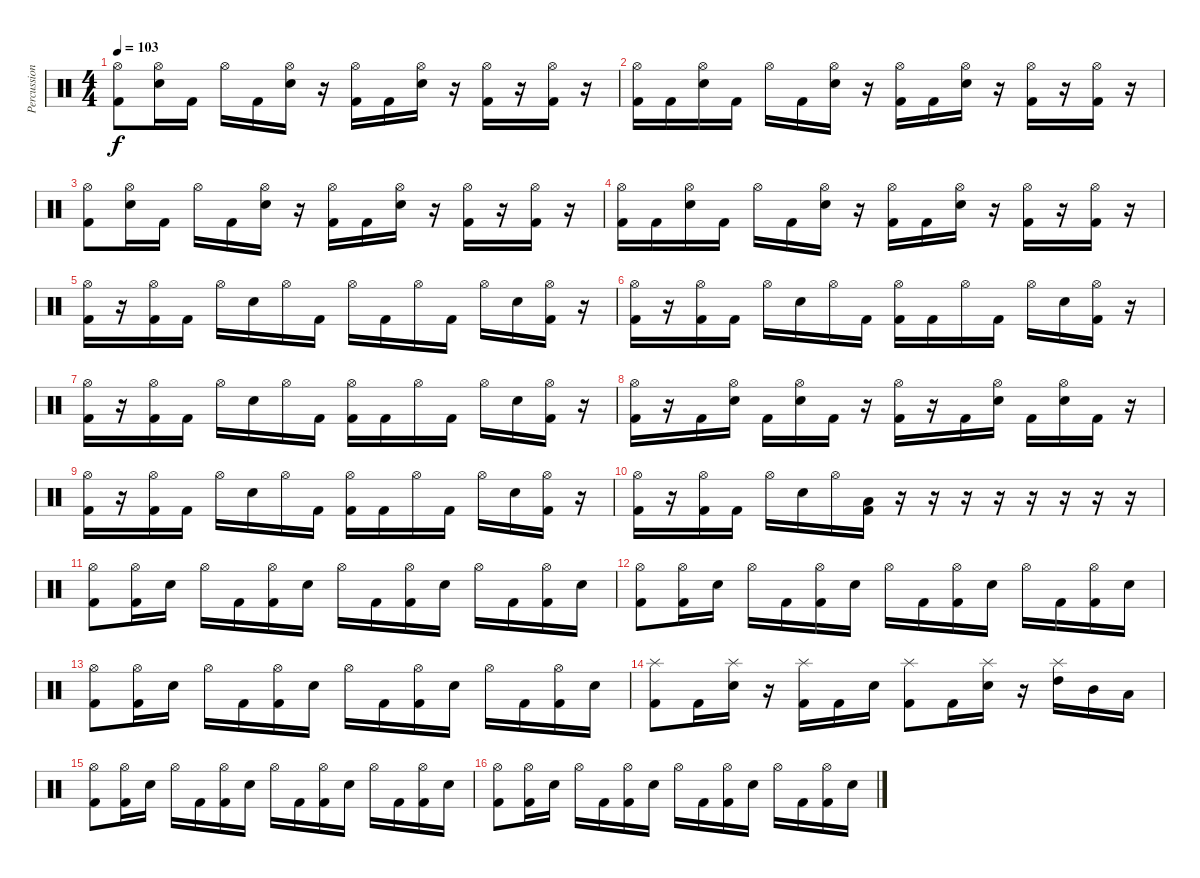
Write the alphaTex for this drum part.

\track ("Percussion" "Percussion") {instrument percussion}
\staff {score}
\articulation defaults
\ts (4 4)
\tempo 103
\clef neutral
\ks c
("Hi-Hat (open)" "Kick (hit) 2").8{dy f} ("Hi-Hat (open)" "Electric Snare (hit)").16 "Kick (hit) 2".16 "Hi-Hat (open)".16 "Kick (hit) 2".16 ("Hi-Hat (open)" "Electric Snare (hit)").16 r.16 ("Hi-Hat (open)" "Kick (hit) 2").16 "Kick (hit) 2".16 ("Hi-Hat (open)" "Electric Snare (hit)").16 r.16 ("Hi-Hat (open)" "Kick (hit) 2").16 r.16 ("Hi-Hat (open)" "Kick (hit) 2").16 r.16 |
("Hi-Hat (open)" "Kick (hit) 2").16 "Kick (hit) 2".16 ("Hi-Hat (open)" "Electric Snare (hit)").16 "Kick (hit) 2".16 "Hi-Hat (open)".16 "Kick (hit) 2".16 ("Hi-Hat (open)" "Electric Snare (hit)").16 r.16 ("Hi-Hat (open)" "Kick (hit) 2").16 "Kick (hit) 2".16 ("Hi-Hat (open)" "Electric Snare (hit)").16 r.16 ("Hi-Hat (open)" "Kick (hit) 2").16 r.16 ("Hi-Hat (open)" "Kick (hit) 2").16 r.16 |
("Hi-Hat (open)" "Kick (hit) 2").8 ("Hi-Hat (open)" "Electric Snare (hit)").16 "Kick (hit) 2".16 "Hi-Hat (open)".16 "Kick (hit) 2".16 ("Hi-Hat (open)" "Electric Snare (hit)").16 r.16 ("Hi-Hat (open)" "Kick (hit) 2").16 "Kick (hit) 2".16 ("Hi-Hat (open)" "Electric Snare (hit)").16 r.16 ("Hi-Hat (open)" "Kick (hit) 2").16 r.16 ("Hi-Hat (open)" "Kick (hit) 2").16 r.16 |
("Hi-Hat (open)" "Kick (hit) 2").16 "Kick (hit) 2".16 ("Hi-Hat (open)" "Electric Snare (hit)").16 "Kick (hit) 2".16 "Hi-Hat (open)".16 "Kick (hit) 2".16 ("Hi-Hat (open)" "Electric Snare (hit)").16 r.16 ("Hi-Hat (open)" "Kick (hit) 2").16 "Kick (hit) 2".16 ("Hi-Hat (open)" "Electric Snare (hit)").16 r.16 ("Hi-Hat (open)" "Kick (hit) 2").16 r.16 ("Hi-Hat (open)" "Kick (hit) 2").16 r.16 |
("Hi-Hat (open)" "Kick (hit) 2").16 r.16 ("Hi-Hat (open)" "Kick (hit) 2").16 "Kick (hit) 2".16 "Hi-Hat (open)".16 "Electric Snare (hit)".16 "Hi-Hat (open)".16 "Kick (hit) 2".16 "Hi-Hat (open)".16 "Kick (hit) 2".16 "Hi-Hat (open)".16 "Kick (hit) 2".16 "Hi-Hat (open)".16 "Electric Snare (hit)".16 ("Hi-Hat (open)" "Kick (hit) 2").16 r.16 |
("Hi-Hat (open)" "Kick (hit) 2").16 r.16 ("Hi-Hat (open)" "Kick (hit) 2").16 "Kick (hit) 2".16 "Hi-Hat (open)".16 "Electric Snare (hit)".16 "Hi-Hat (open)".16 "Kick (hit) 2".16 ("Hi-Hat (open)" "Kick (hit) 2").16 "Kick (hit) 2".16 "Hi-Hat (open)".16 "Kick (hit) 2".16 "Hi-Hat (open)".16 "Electric Snare (hit)".16 ("Hi-Hat (open)" "Kick (hit) 2").16 r.16 |
("Hi-Hat (open)" "Kick (hit) 2").16 r.16 ("Hi-Hat (open)" "Kick (hit) 2").16 "Kick (hit) 2".16 "Hi-Hat (open)".16 "Electric Snare (hit)".16 "Hi-Hat (open)".16 "Kick (hit) 2".16 ("Hi-Hat (open)" "Kick (hit) 2").16 "Kick (hit) 2".16 "Hi-Hat (open)".16 "Kick (hit) 2".16 "Hi-Hat (open)".16 "Electric Snare (hit)".16 ("Hi-Hat (open)" "Kick (hit) 2").16 r.16 |
("Hi-Hat (open)" "Kick (hit) 2").16 r.16 "Kick (hit) 2".16 ("Hi-Hat (open)" "Electric Snare (hit)").16 "Kick (hit) 2".16 ("Hi-Hat (open)" "Electric Snare (hit)").16 "Kick (hit) 2".16 r.16 ("Hi-Hat (open)" "Kick (hit) 2").16 r.16 "Kick (hit) 2".16 ("Hi-Hat (open)" "Electric Snare (hit)").16 "Kick (hit) 2".16 ("Hi-Hat (open)" "Electric Snare (hit)").16 "Kick (hit) 2".16 r.16 |
("Hi-Hat (open)" "Kick (hit) 2").16 r.16 ("Hi-Hat (open)" "Kick (hit) 2").16 "Kick (hit) 2".16 "Hi-Hat (open)".16 "Electric Snare (hit)".16 "Hi-Hat (open)".16 "Kick (hit) 2".16 ("Hi-Hat (open)" "Kick (hit) 2").16 "Kick (hit) 2".16 "Hi-Hat (open)".16 "Kick (hit) 2".16 "Hi-Hat (open)".16 "Electric Snare (hit)".16 ("Hi-Hat (open)" "Kick (hit) 2").16 r.16 |
("Hi-Hat (open)" "Kick (hit) 2").16 r.16 ("Hi-Hat (open)" "Kick (hit) 2").16 "Kick (hit) 2".16 "Hi-Hat (open)".16 "Electric Snare (hit)".16 "Hi-Hat (open)".16 ("Low Floor Tom (hit)" "Kick (hit) 2").16 r.16 r.16 r.16 r.16 r.16 r.16 r.16 r.16 |
("Hi-Hat (open)" "Kick (hit) 2").8 ("Hi-Hat (open)" "Kick (hit) 2").16 "Electric Snare (hit)".16 "Hi-Hat (open)".16 "Kick (hit) 2".16 ("Hi-Hat (open)" "Kick (hit) 2").16 "Electric Snare (hit)".16 "Hi-Hat (open)".16 "Kick (hit) 2".16 ("Hi-Hat (open)" "Kick (hit) 2").16 "Electric Snare (hit)".16 "Hi-Hat (open)".16 "Kick (hit) 2".16 ("Hi-Hat (open)" "Kick (hit) 2").16 "Electric Snare (hit)".16 |
("Hi-Hat (open)" "Kick (hit) 2").8 ("Hi-Hat (open)" "Kick (hit) 2").16 "Electric Snare (hit)".16 "Hi-Hat (open)".16 "Kick (hit) 2".16 ("Hi-Hat (open)" "Kick (hit) 2").16 "Electric Snare (hit)".16 "Hi-Hat (open)".16 "Kick (hit) 2".16 ("Hi-Hat (open)" "Kick (hit) 2").16 "Electric Snare (hit)".16 "Hi-Hat (open)".16 "Kick (hit) 2".16 ("Hi-Hat (open)" "Kick (hit) 2").16 "Electric Snare (hit)".16 |
("Hi-Hat (open)" "Kick (hit) 2").8 ("Hi-Hat (open)" "Kick (hit) 2").16 "Electric Snare (hit)".16 "Hi-Hat (open)".16 "Kick (hit) 2".16 ("Hi-Hat (open)" "Kick (hit) 2").16 "Electric Snare (hit)".16 "Hi-Hat (open)".16 "Kick (hit) 2".16 ("Hi-Hat (open)" "Kick (hit) 2").16 "Electric Snare (hit)".16 "Hi-Hat (open)".16 "Kick (hit) 2".16 ("Hi-Hat (open)" "Kick (hit) 2").16 "Electric Snare (hit)".16 |
("Splash (hit)" "Kick (hit) 2").8 "Kick (hit) 2".16 ("Splash (hit)" "Electric Snare (hit)").16 r.16 ("Splash (hit)" "Kick (hit) 2").16 "Kick (hit) 2".16 "Electric Snare (hit)".16 ("Splash (hit)" "Kick (hit) 2").8 "Kick (hit) 2".16 ("Splash (hit)" "Electric Snare (hit)").16 r.16 ("Splash (hit)" "High Tom (hit)").16 "Mid Tom (hit)".16 "Low Tom (hit)".16 |
("Hi-Hat (open)" "Kick (hit) 2").8 ("Hi-Hat (open)" "Kick (hit) 2").16 "Electric Snare (hit)".16 "Hi-Hat (open)".16 "Kick (hit) 2".16 ("Hi-Hat (open)" "Kick (hit) 2").16 "Electric Snare (hit)".16 "Hi-Hat (open)".16 "Kick (hit) 2".16 ("Hi-Hat (open)" "Kick (hit) 2").16 "Electric Snare (hit)".16 "Hi-Hat (open)".16 "Kick (hit) 2".16 ("Hi-Hat (open)" "Kick (hit) 2").16 "Electric Snare (hit)".16 |
("Hi-Hat (open)" "Kick (hit) 2").8 ("Hi-Hat (open)" "Kick (hit) 2").16 "Electric Snare (hit)".16 "Hi-Hat (open)".16 "Kick (hit) 2".16 ("Hi-Hat (open)" "Kick (hit) 2").16 "Electric Snare (hit)".16 "Hi-Hat (open)".16 "Kick (hit) 2".16 ("Hi-Hat (open)" "Kick (hit) 2").16 "Electric Snare (hit)".16 "Hi-Hat (open)".16 "Kick (hit) 2".16 ("Hi-Hat (open)" "Kick (hit) 2").16 "Electric Snare (hit)".16
